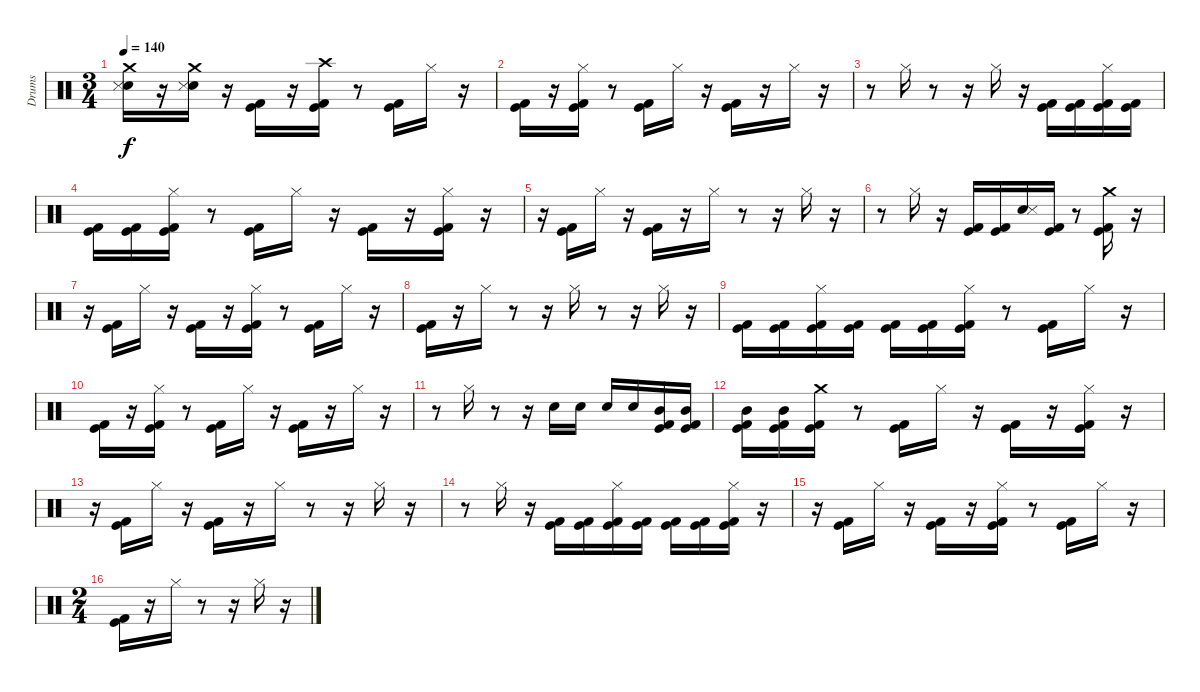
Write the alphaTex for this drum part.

\track ("Drums" "Drums") {instrument percussion}
\staff {score}
\articulation defaults
\ts (3 4)
\tempo 140
\clef neutral
\ks c
("Crash medium (hit)" "Electric Snare (hit)" "Snare (side stick) 3").16{dy f} r.16 ("Crash medium (hit)" "Electric Snare (hit)" "Snare (side stick) 3").16 r.16 ("Kick (hit)" "Kick (hit) 2").16 r.16 ("Crash high (hit)" "Kick (hit)" "Kick (hit) 2").16 r.8 ("Kick (hit)" "Kick (hit) 2").16 "Hi-Hat (closed)".16 r.16 |
("Kick (hit)" "Kick (hit) 2").16 r.16 ("Hi-Hat (closed)" "Kick (hit)" "Kick (hit) 2").16 r.8 ("Kick (hit)" "Kick (hit) 2").16 "Hi-Hat (closed)".16 r.16 ("Kick (hit)" "Kick (hit) 2").16 r.16 "Hi-Hat (closed)".16 r.16 |
r.8 "Hi-Hat (closed)".16 r.8 r.16 "Hi-Hat (closed)".16 r.16 ("Kick (hit)" "Kick (hit) 2").16 ("Kick (hit)" "Kick (hit) 2").16 ("Hi-Hat (closed)" "Kick (hit)" "Kick (hit) 2").16 ("Kick (hit)" "Kick (hit) 2").16 |
("Kick (hit)" "Kick (hit) 2").16 ("Kick (hit)" "Kick (hit) 2").16 ("Hi-Hat (closed)" "Kick (hit)" "Kick (hit) 2").16 r.8 ("Kick (hit)" "Kick (hit) 2").16 "Hi-Hat (closed)".16 r.16 ("Kick (hit)" "Kick (hit) 2").16 r.16 ("Hi-Hat (closed)" "Kick (hit)" "Kick (hit) 2").16 r.16 |
r.16 ("Kick (hit)" "Kick (hit) 2").16 "Hi-Hat (closed)".16 r.16 ("Kick (hit)" "Kick (hit) 2").16 r.16 "Hi-Hat (closed)".16 r.8 r.16 "Hi-Hat (closed)".16 r.16 |
r.8 "Hi-Hat (closed)".16 r.16 ("Kick (hit)" "Kick (hit) 2").16 ("Kick (hit)" "Kick (hit) 2").16 ("Electric Snare (hit)" "Snare (side stick) 3").16 ("Kick (hit)" "Kick (hit) 2").16 r.8 ("Crash medium (hit)" "Kick (hit)" "Kick (hit) 2").16 r.16 |
r.16 ("Kick (hit)" "Kick (hit) 2").16 "Hi-Hat (closed)".16 r.16 ("Kick (hit)" "Kick (hit) 2").16 r.16 ("Hi-Hat (closed)" "Kick (hit)" "Kick (hit) 2").16 r.8 ("Kick (hit)" "Kick (hit) 2").16 "Hi-Hat (closed)".16 r.16 |
("Kick (hit)" "Kick (hit) 2").16 r.16 "Hi-Hat (closed)".16 r.8 r.16 "Hi-Hat (closed)".16 r.8 r.16 "Hi-Hat (closed)".16 r.16 |
("Kick (hit)" "Kick (hit) 2").16 ("Kick (hit)" "Kick (hit) 2").16 ("Hi-Hat (closed)" "Kick (hit)" "Kick (hit) 2").16 ("Kick (hit)" "Kick (hit) 2").16 ("Kick (hit)" "Kick (hit) 2").16 ("Kick (hit)" "Kick (hit) 2").16 ("Hi-Hat (closed)" "Kick (hit)" "Kick (hit) 2").16 r.8 ("Kick (hit)" "Kick (hit) 2").16 "Hi-Hat (closed)".16 r.16 |
("Kick (hit)" "Kick (hit) 2").16 r.16 ("Hi-Hat (closed)" "Kick (hit)" "Kick (hit) 2").16 r.8 ("Kick (hit)" "Kick (hit) 2").16 "Hi-Hat (closed)".16 r.16 ("Kick (hit)" "Kick (hit) 2").16 r.16 "Hi-Hat (closed)".16 r.16 |
r.8 "Hi-Hat (closed)".16 r.8 r.16 "Electric Snare (hit)".16 "Electric Snare (hit)".16 "Electric Snare (hit)".16 "Electric Snare (hit)".16 ("Kick (hit)" "Mid Tom (hit)" "Kick (hit) 2").16 ("Kick (hit)" "Mid Tom (hit)" "Kick (hit) 2").16 |
("Kick (hit)" "Mid Tom (hit)" "Kick (hit) 2").16 ("Kick (hit)" "Mid Tom (hit)" "Kick (hit) 2").16 ("Crash medium (hit)" "Kick (hit)" "Kick (hit) 2").16 r.8 ("Kick (hit)" "Kick (hit) 2").16 "Hi-Hat (closed)".16 r.16 ("Kick (hit)" "Kick (hit) 2").16 r.16 ("Hi-Hat (closed)" "Kick (hit)" "Kick (hit) 2").16 r.16 |
r.16 ("Kick (hit)" "Kick (hit) 2").16 "Hi-Hat (closed)".16 r.16 ("Kick (hit)" "Kick (hit) 2").16 r.16 "Hi-Hat (closed)".16 r.8 r.16 "Hi-Hat (closed)".16 r.16 |
r.8 "Hi-Hat (closed)".16 r.16 ("Kick (hit)" "Kick (hit) 2").16 ("Kick (hit)" "Kick (hit) 2").16 ("Hi-Hat (closed)" "Kick (hit)" "Kick (hit) 2").16 ("Kick (hit)" "Kick (hit) 2").16 ("Kick (hit)" "Kick (hit) 2").16 ("Kick (hit)" "Kick (hit) 2").16 ("Hi-Hat (closed)" "Kick (hit)" "Kick (hit) 2").16 r.16 |
r.16 ("Kick (hit)" "Kick (hit) 2").16 "Hi-Hat (closed)".16 r.16 ("Kick (hit)" "Kick (hit) 2").16 r.16 ("Hi-Hat (closed)" "Kick (hit)" "Kick (hit) 2").16 r.8 ("Kick (hit)" "Kick (hit) 2").16 "Hi-Hat (closed)".16 r.16 |
\ts (2 4)
("Kick (hit)" "Kick (hit) 2").16 r.16 "Hi-Hat (closed)".16 r.8 r.16 "Hi-Hat (closed)".16 r.16
